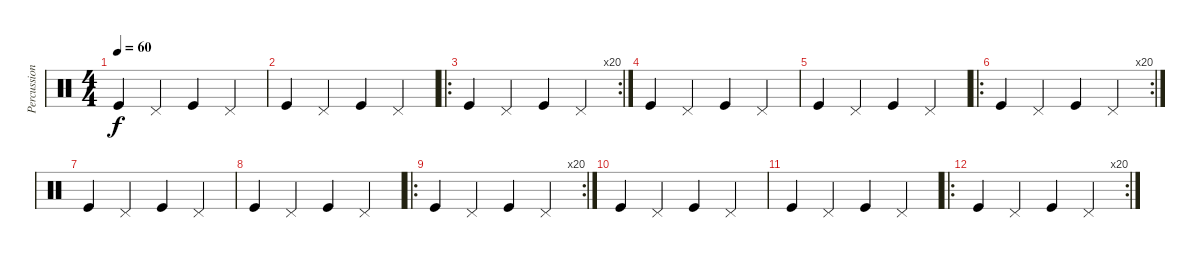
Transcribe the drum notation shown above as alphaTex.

\track ("Percussion" "Percussion") {instrument percussion}
\staff {score}
\articulation defaults
\ts (4 4)
\tempo 60
\clef neutral
\ks c "Kick (hit)".4{dy f} "Pedal Hi-Hat (hit)".4 "Kick (hit)".4 "Pedal Hi-Hat (hit)".4
|
"Kick (hit)".4 "Pedal Hi-Hat (hit)".4 "Kick (hit)".4 "Pedal Hi-Hat (hit)".4 |
\ro
\rc 20 "Kick (hit)".4 "Pedal Hi-Hat (hit)".4 "Kick (hit)".4 "Pedal Hi-Hat (hit)".4
|
"Kick (hit)".4 "Pedal Hi-Hat (hit)".4 "Kick (hit)".4 "Pedal Hi-Hat (hit)".4 |
"Kick (hit)".4 "Pedal Hi-Hat (hit)".4 "Kick (hit)".4 "Pedal Hi-Hat (hit)".4 |
\ro
\rc 20 "Kick (hit)".4 "Pedal Hi-Hat (hit)".4 "Kick (hit)".4 "Pedal Hi-Hat (hit)".4
|
"Kick (hit)".4 "Pedal Hi-Hat (hit)".4 "Kick (hit)".4 "Pedal Hi-Hat (hit)".4 |
"Kick (hit)".4 "Pedal Hi-Hat (hit)".4 "Kick (hit)".4 "Pedal Hi-Hat (hit)".4 |
\ro
\rc 20 "Kick (hit)".4 "Pedal Hi-Hat (hit)".4 "Kick (hit)".4 "Pedal Hi-Hat (hit)".4
|
"Kick (hit)".4 "Pedal Hi-Hat (hit)".4 "Kick (hit)".4 "Pedal Hi-Hat (hit)".4 |
"Kick (hit)".4 "Pedal Hi-Hat (hit)".4 "Kick (hit)".4 "Pedal Hi-Hat (hit)".4 |
\ro
\rc 20 "Kick (hit)".4 "Pedal Hi-Hat (hit)".4 "Kick (hit)".4 "Pedal Hi-Hat (hit)".4
